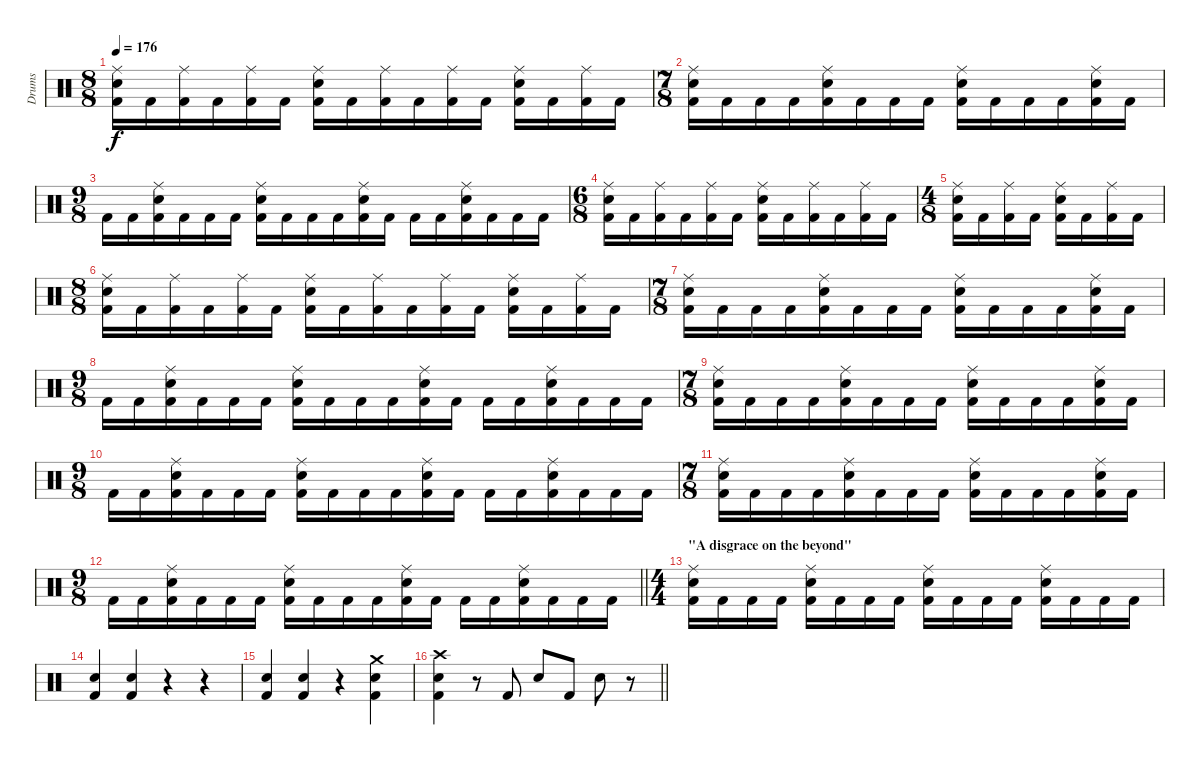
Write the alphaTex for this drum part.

\track ("Drums" "Drums") {instrument percussion}
\staff {score}
\articulation defaults
\ts (8 8)
\tempo 176
\clef neutral
\ks c
("Ride (middle)" "Snare (hit) 2" "Kick (hit) 2").16{dy f} "Kick (hit) 2".16 ("Ride (middle)" "Kick (hit) 2").16 "Kick (hit) 2".16 ("Ride (middle)" "Kick (hit) 2").16 "Kick (hit) 2".16 ("Ride (middle)" "Snare (hit) 2" "Kick (hit) 2").16 "Kick (hit) 2".16 ("Ride (middle)" "Kick (hit) 2").16 "Kick (hit) 2".16 ("Ride (middle)" "Kick (hit) 2").16 "Kick (hit) 2".16 ("Ride (middle)" "Snare (hit) 2" "Kick (hit) 2").16 "Kick (hit) 2".16 ("Ride (middle)" "Kick (hit) 2").16 "Kick (hit) 2".16 |
\ts (7 8)
("Ride (middle)" "Snare (hit) 2" "Kick (hit) 2").16 "Kick (hit) 2".16 "Kick (hit) 2".16 "Kick (hit) 2".16 ("Ride (middle)" "Snare (hit) 2" "Kick (hit) 2").16 "Kick (hit) 2".16 "Kick (hit) 2".16 "Kick (hit) 2".16 ("Ride (middle)" "Snare (hit) 2" "Kick (hit) 2").16 "Kick (hit) 2".16 "Kick (hit) 2".16 "Kick (hit) 2".16 ("Ride (middle)" "Snare (hit) 2" "Kick (hit) 2").16 "Kick (hit) 2".16 |
\ts (9 8)
"Kick (hit) 2".16 "Kick (hit) 2".16 ("Ride (middle)" "Snare (hit) 2" "Kick (hit) 2").16 "Kick (hit) 2".16 "Kick (hit) 2".16 "Kick (hit) 2".16 ("Ride (middle)" "Snare (hit) 2" "Kick (hit) 2").16 "Kick (hit) 2".16 "Kick (hit) 2".16 "Kick (hit) 2".16 ("Ride (middle)" "Snare (hit) 2" "Kick (hit) 2").16 "Kick (hit) 2".16 "Kick (hit) 2".16 "Kick (hit) 2".16 ("Ride (middle)" "Snare (hit) 2" "Kick (hit) 2").16 "Kick (hit) 2".16 "Kick (hit) 2".16 "Kick (hit) 2".16 |
\ts (6 8)
("Ride (middle)" "Snare (hit) 2" "Kick (hit) 2").16 "Kick (hit) 2".16 ("Ride (middle)" "Kick (hit) 2").16 "Kick (hit) 2".16 ("Ride (middle)" "Kick (hit) 2").16 "Kick (hit) 2".16 ("Ride (middle)" "Snare (hit) 2" "Kick (hit) 2").16 "Kick (hit) 2".16 ("Ride (middle)" "Kick (hit) 2").16 "Kick (hit) 2".16 ("Ride (middle)" "Kick (hit) 2").16 "Kick (hit) 2".16 |
\ts (4 8)
("Ride (middle)" "Snare (hit) 2" "Kick (hit) 2").16 "Kick (hit) 2".16 ("Ride (middle)" "Kick (hit) 2").16 "Kick (hit) 2".16 ("Ride (middle)" "Snare (hit) 2" "Kick (hit) 2").16 "Kick (hit) 2".16 ("Ride (middle)" "Kick (hit) 2").16 "Kick (hit) 2".16 |
\ts (8 8)
("Ride (middle)" "Snare (hit) 2" "Kick (hit) 2").16 "Kick (hit) 2".16 ("Ride (middle)" "Kick (hit) 2").16 "Kick (hit) 2".16 ("Ride (middle)" "Kick (hit) 2").16 "Kick (hit) 2".16 ("Ride (middle)" "Snare (hit) 2" "Kick (hit) 2").16 "Kick (hit) 2".16 ("Ride (middle)" "Kick (hit) 2").16 "Kick (hit) 2".16 ("Ride (middle)" "Kick (hit) 2").16 "Kick (hit) 2".16 ("Ride (middle)" "Snare (hit) 2" "Kick (hit) 2").16 "Kick (hit) 2".16 ("Ride (middle)" "Kick (hit) 2").16 "Kick (hit) 2".16 |
\ts (7 8)
("Ride (middle)" "Snare (hit) 2" "Kick (hit) 2").16 "Kick (hit) 2".16 "Kick (hit) 2".16 "Kick (hit) 2".16 ("Ride (middle)" "Snare (hit) 2" "Kick (hit) 2").16 "Kick (hit) 2".16 "Kick (hit) 2".16 "Kick (hit) 2".16 ("Ride (middle)" "Snare (hit) 2" "Kick (hit) 2").16 "Kick (hit) 2".16 "Kick (hit) 2".16 "Kick (hit) 2".16 ("Ride (middle)" "Snare (hit) 2" "Kick (hit) 2").16 "Kick (hit) 2".16 |
\ts (9 8)
"Kick (hit) 2".16 "Kick (hit) 2".16 ("Ride (middle)" "Snare (hit) 2" "Kick (hit) 2").16 "Kick (hit) 2".16 "Kick (hit) 2".16 "Kick (hit) 2".16 ("Ride (middle)" "Snare (hit) 2" "Kick (hit) 2").16 "Kick (hit) 2".16 "Kick (hit) 2".16 "Kick (hit) 2".16 ("Ride (middle)" "Snare (hit) 2" "Kick (hit) 2").16 "Kick (hit) 2".16 "Kick (hit) 2".16 "Kick (hit) 2".16 ("Ride (middle)" "Snare (hit) 2" "Kick (hit) 2").16 "Kick (hit) 2".16 "Kick (hit) 2".16 "Kick (hit) 2".16 |
\ts (7 8)
("Ride (middle)" "Snare (hit) 2" "Kick (hit) 2").16 "Kick (hit) 2".16 "Kick (hit) 2".16 "Kick (hit) 2".16 ("Ride (middle)" "Snare (hit) 2" "Kick (hit) 2").16 "Kick (hit) 2".16 "Kick (hit) 2".16 "Kick (hit) 2".16 ("Ride (middle)" "Snare (hit) 2" "Kick (hit) 2").16 "Kick (hit) 2".16 "Kick (hit) 2".16 "Kick (hit) 2".16 ("Ride (middle)" "Snare (hit) 2" "Kick (hit) 2").16 "Kick (hit) 2".16 |
\ts (9 8)
"Kick (hit) 2".16 "Kick (hit) 2".16 ("Ride (middle)" "Snare (hit) 2" "Kick (hit) 2").16 "Kick (hit) 2".16 "Kick (hit) 2".16 "Kick (hit) 2".16 ("Ride (middle)" "Snare (hit) 2" "Kick (hit) 2").16 "Kick (hit) 2".16 "Kick (hit) 2".16 "Kick (hit) 2".16 ("Ride (middle)" "Snare (hit) 2" "Kick (hit) 2").16 "Kick (hit) 2".16 "Kick (hit) 2".16 "Kick (hit) 2".16 ("Ride (middle)" "Snare (hit) 2" "Kick (hit) 2").16 "Kick (hit) 2".16 "Kick (hit) 2".16 "Kick (hit) 2".16 |
\ts (7 8)
("Ride (middle)" "Snare (hit) 2" "Kick (hit) 2").16 "Kick (hit) 2".16 "Kick (hit) 2".16 "Kick (hit) 2".16 ("Ride (middle)" "Snare (hit) 2" "Kick (hit) 2").16 "Kick (hit) 2".16 "Kick (hit) 2".16 "Kick (hit) 2".16 ("Ride (middle)" "Snare (hit) 2" "Kick (hit) 2").16 "Kick (hit) 2".16 "Kick (hit) 2".16 "Kick (hit) 2".16 ("Ride (middle)" "Snare (hit) 2" "Kick (hit) 2").16 "Kick (hit) 2".16 |
\ts (9 8)
\barLineRight lightlight "Kick (hit) 2".16 "Kick (hit) 2".16
("Ride (middle)" "Snare (hit) 2" "Kick (hit) 2").16 "Kick (hit) 2".16 "Kick (hit) 2".16 "Kick (hit) 2".16 ("Ride (middle)" "Snare (hit) 2" "Kick (hit) 2").16 "Kick (hit) 2".16 "Kick (hit) 2".16 "Kick (hit) 2".16 ("Ride (middle)" "Snare (hit) 2" "Kick (hit) 2").16 "Kick (hit) 2".16 "Kick (hit) 2".16 "Kick (hit) 2".16 ("Ride (middle)" "Snare (hit) 2" "Kick (hit) 2").16 "Kick (hit) 2".16 "Kick (hit) 2".16 "Kick (hit) 2".16 |
\ts (4 4)
\section ("" "\"A disgrace on the beyond\"")
("Ride (middle)" "Snare (hit) 2" "Kick (hit) 2").16 "Kick (hit) 2".16 "Kick (hit) 2".16 "Kick (hit) 2".16 ("Ride (middle)" "Snare (hit) 2" "Kick (hit) 2").16 "Kick (hit) 2".16 "Kick (hit) 2".16 "Kick (hit) 2".16 ("Ride (middle)" "Snare (hit) 2" "Kick (hit) 2").16 "Kick (hit) 2".16 "Kick (hit) 2".16 "Kick (hit) 2".16 ("Ride (middle)" "Snare (hit) 2" "Kick (hit) 2").16 "Kick (hit) 2".16 "Kick (hit) 2".16 "Kick (hit) 2".16 |
("Snare (hit) 2" "Kick (hit) 2").4 ("Snare (hit) 2" "Kick (hit) 2").4 r.4 r.4 |
("Snare (hit) 2" "Kick (hit) 2").4 ("Snare (hit) 2" "Kick (hit) 2").4 r.4 ("Crash medium (hit)" "Snare (hit) 2" "Kick (hit) 2").4 |
\barLineRight lightlight
("Crash high (hit)" "Snare (hit) 2" "Kick (hit) 2").4 r.8 "Kick (hit) 2".8 "Snare (hit) 2".8 "Kick (hit) 2".8 "Snare (hit) 2".8 r.8
